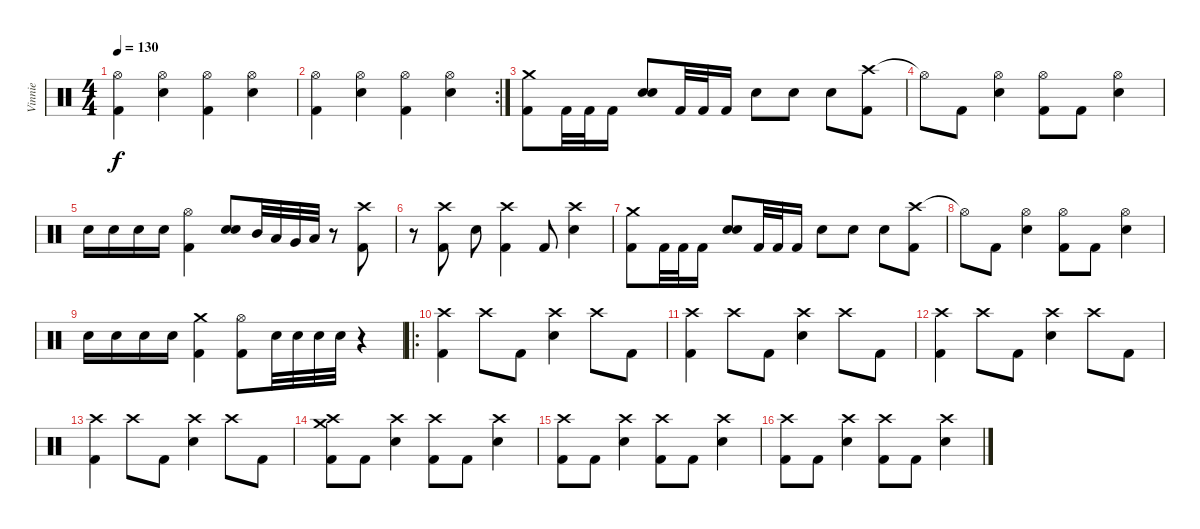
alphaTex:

\track ("Vinnie" "Vinnie") {instrument percussion}
\staff {score}
\articulation defaults
\ts (4 4)
\tempo 130
\clef neutral
\ks c
("Hi-Hat (open)" "Kick (hit) 2").4{dy f} ("Hi-Hat (open)" "Snare (hit) 2").4 ("Hi-Hat (open)" "Kick (hit) 2").4 ("Hi-Hat (open)" "Snare (hit) 2").4 |
\rc 2
("Hi-Hat (open)" "Kick (hit) 2").4 ("Hi-Hat (open)" "Snare (hit) 2").4 ("Hi-Hat (open)" "Kick (hit) 2").4 ("Hi-Hat (open)" "Snare (hit) 2").4 |
("Crash medium (hit)" "Kick (hit) 2").8 "Kick (hit) 2".32 "Kick (hit) 2".32 "Kick (hit) 2".16 ("Snare (hit) 2" "Snare (hit) 2").8{bd 120} "Kick (hit) 2".32 "Kick (hit) 2".32 "Kick (hit) 2".16 "Snare (hit) 2".8 "Snare (hit) 2".8 "Snare (hit) 2".8 ("Crash high (hit)" "Kick (hit) 2").8 |
"Hi-Hat (open)"{t}.8 "Kick (hit) 2".8 ("Hi-Hat (open)" "Snare (hit) 2").4 ("Hi-Hat (open)" "Kick (hit) 2").8 "Kick (hit) 2".8 ("Hi-Hat (open)" "Snare (hit) 2").4 |
"Snare (hit) 2".16 "Snare (hit) 2".16 "Snare (hit) 2".16 "Snare (hit) 2".16 ("Hi-Hat (open)" "Kick (hit) 2").4 ("Snare (hit) 2" "Snare (hit) 2").8{bd 120} "Mid Tom (hit)".32 "Low Tom (hit)".32 "Very Low Tom (hit)".32 "Low Floor Tom (hit)".32 r.8 ("Crash high (hit)" "Kick (hit) 2").8 |
r.8 ("Crash high (hit)" "Kick (hit) 2").8 "Snare (hit) 2".8 ("Crash high (hit)" "Kick (hit) 2").4 "Kick (hit) 2".8 ("Crash high (hit)" "Snare (hit) 2").4 |
("Crash medium (hit)" "Kick (hit) 2").8 "Kick (hit) 2".32 "Kick (hit) 2".32 "Kick (hit) 2".16 ("Snare (hit) 2" "Snare (hit) 2").8{bd 120} "Kick (hit) 2".32 "Kick (hit) 2".32 "Kick (hit) 2".16 "Snare (hit) 2".8 "Snare (hit) 2".8 "Snare (hit) 2".8 ("Crash high (hit)" "Kick (hit) 2").8 |
"Hi-Hat (open)"{t}.8 "Kick (hit) 2".8 ("Hi-Hat (open)" "Snare (hit) 2").4 ("Hi-Hat (open)" "Kick (hit) 2").8 "Kick (hit) 2".8 ("Hi-Hat (open)" "Snare (hit) 2").4 |
"Snare (hit) 2".16 "Snare (hit) 2".16 "Snare (hit) 2".16 "Snare (hit) 2".16 ("Crash medium (hit)" "Kick (hit) 2").4 ("Hi-Hat (open)" "Kick (hit) 2").8{bd 120} "Snare (hit) 2".32 "Snare (hit) 2".32 "Snare (hit) 2".32 "Snare (hit) 2".32 r.4 |
\ro
("Crash high (hit)" "Kick (hit) 2").4 "Crash high (hit)".8 "Kick (hit) 2".8 ("Crash high (hit)" "Snare (hit) 2").4 "Crash high (hit)".8 "Kick (hit) 2".8 |
("Crash high (hit)" "Kick (hit) 2").4 "Crash high (hit)".8 "Kick (hit) 2".8 ("Crash high (hit)" "Snare (hit) 2").4 "Crash high (hit)".8 "Kick (hit) 2".8 |
("Crash high (hit)" "Kick (hit) 2").4 "Crash high (hit)".8 "Kick (hit) 2".8 ("Crash high (hit)" "Snare (hit) 2").4 "Crash high (hit)".8 "Kick (hit) 2".8 |
("Crash high (hit)" "Kick (hit) 2").4 "Crash high (hit)".8 "Kick (hit) 2".8 ("Crash high (hit)" "Snare (hit) 2").4 "Crash high (hit)".8 "Kick (hit) 2".8 |
("Crash high (hit)" "Crash medium (hit)" "Kick (hit) 2").8 "Kick (hit) 2".8 ("Crash high (hit)" "Snare (hit) 2").4 ("Crash high (hit)" "Kick (hit) 2").8 "Kick (hit) 2".8 ("Crash high (hit)" "Snare (hit) 2").4 |
("Crash high (hit)" "Kick (hit) 2").8 "Kick (hit) 2".8 ("Crash high (hit)" "Snare (hit) 2").4 ("Crash high (hit)" "Kick (hit) 2").8 "Kick (hit) 2".8 ("Crash high (hit)" "Snare (hit) 2").4 |
("Crash high (hit)" "Kick (hit) 2").8 "Kick (hit) 2".8 ("Crash high (hit)" "Snare (hit) 2").4 ("Crash high (hit)" "Kick (hit) 2").8 "Kick (hit) 2".8 ("Crash high (hit)" "Snare (hit) 2").4
